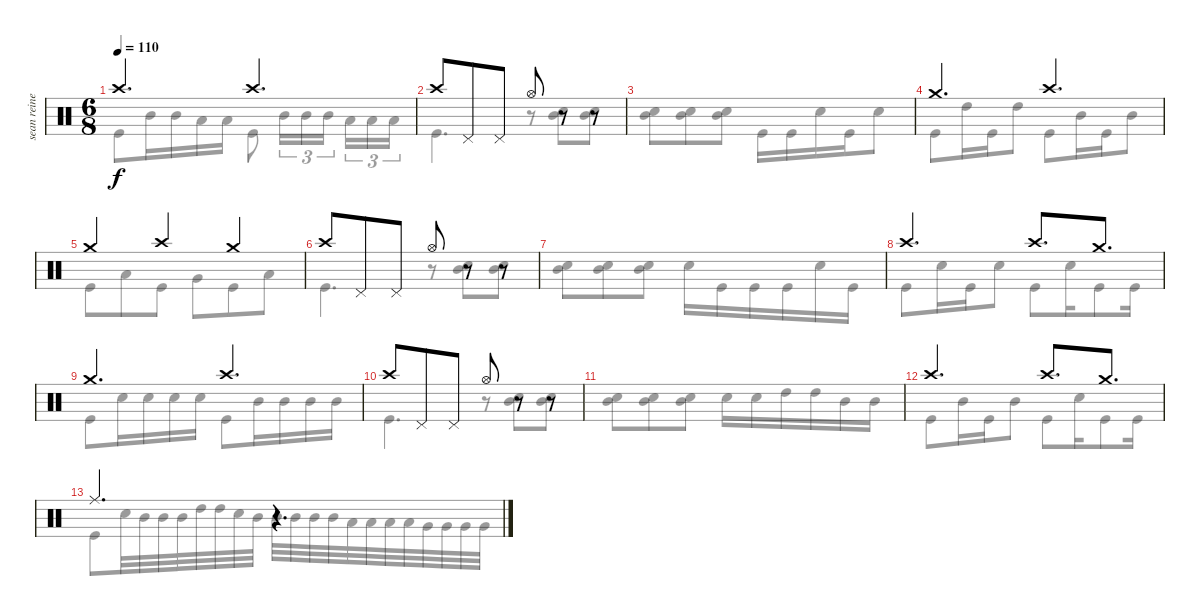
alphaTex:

\track ("sean reinert" "sean reine") {instrument percussion}
\staff {score}
\articulation defaults
\voice
\ts (6 8)
\tempo 110
\clef neutral
\ks c "Crash high (hit)".4{d dy f} "Crash high (hit)".4{d}
|
"Crash high (hit)".8 "Pedal Hi-Hat (hit)".8 "Pedal Hi-Hat (hit)".8 "Hi-Hat (open)".8 r.8 r.8 |
|
"Crash medium (hit)".4{d} "Crash high (hit)".4{d} |
"Crash medium (hit)".4 "Crash high (hit)".4 "Crash medium (hit)".4 |
"Crash high (hit)".8 "Pedal Hi-Hat (hit)".8 "Pedal Hi-Hat (hit)".8 "Hi-Hat (open)".8 r.8 r.8 |
|
"Crash high (hit)".4{d} "Crash high (hit)".8{d} "Crash medium (hit)".8{d} |
"Crash medium (hit)".4{d} "Crash high (hit)".4{d} |
"Crash high (hit)".8 "Pedal Hi-Hat (hit)".8 "Pedal Hi-Hat (hit)".8 "Hi-Hat (open)".8 r.8 r.8 |
|
"Crash high (hit)".4{d volume 0} "Crash high (hit)".8{d} "Crash medium (hit)".8{d} |
"Ride (middle)".4{d} r.4{d} |
\voice
\clef neutral
\ottava regular
\simile none
\ks c "Kick (hit)".8{dy f} "Mid Tom (hit)".16 "Mid Tom (hit)".16 "Low Tom (hit)".16 "Low Tom (hit)".16 "Kick (hit)".8 "Mid Tom (hit)".16{tu (3 2)} "Mid Tom (hit)".16{tu (3 2)} "Mid Tom (hit)".16{tu (3 2) beam splitsecondary} "Low Tom (hit)".16{tu (3 2)} "Low Tom (hit)".16{tu (3 2)} "Low Tom (hit)".16{tu (3 2)}
|
"Kick (hit)".4{d} r.8 ("Mid Tom (hit)" "Snare (hit) 2").8 ("Mid Tom (hit)" "Snare (hit) 2").8 |
("Mid Tom (hit)" "Snare (hit) 2").8 ("Mid Tom (hit)" "Snare (hit) 2").8 ("Mid Tom (hit)" "Snare (hit) 2").8 "Kick (hit)".16 "Kick (hit)".16 "Snare (hit) 2".16 "Kick (hit)".16 "Snare (hit) 2".8 |
"Kick (hit)".8 "High Tom (hit)".16 "Kick (hit)".16 "High Tom (hit)".8 "Kick (hit)".8 "Mid Tom (hit)".16 "Kick (hit)".16 "Mid Tom (hit)".8 |
"Kick (hit)".8 "Low Tom (hit)".8 "Kick (hit)".8 "Very Low Tom (hit)".8 "Kick (hit)".8 "Low Tom (hit)".8 |
"Kick (hit)".4{d} r.8 ("Mid Tom (hit)" "Snare (hit) 2").8 ("Mid Tom (hit)" "Snare (hit) 2").8 |
("Mid Tom (hit)" "Snare (hit) 2").8 ("Mid Tom (hit)" "Snare (hit) 2").8 ("Mid Tom (hit)" "Snare (hit) 2").8 "Snare (hit) 2".16 "Kick (hit)".16 "Kick (hit)".16 "Kick (hit)".16 "Snare (hit) 2".16 "Kick (hit)".16 |
"Kick (hit)".8 "Snare (hit) 2".16 "Kick (hit)".16 "Snare (hit) 2".8 "Kick (hit)".8 "Snare (hit) 2".16 "Kick (hit)".8 "Kick (hit)".16 |
"Kick (hit)".8 "Snare (hit) 2".16 "Snare (hit) 2".16 "Snare (hit) 2".16 "Snare (hit) 2".16 "Kick (hit)".8 "Mid Tom (hit)".16 "Mid Tom (hit)".16 "Mid Tom (hit)".16 "Mid Tom (hit)".16 |
"Kick (hit)".4{d} r.8 ("Mid Tom (hit)" "Snare (hit) 2").8 ("Mid Tom (hit)" "Snare (hit) 2").8 |
("Mid Tom (hit)" "Snare (hit) 2").8 ("Mid Tom (hit)" "Snare (hit) 2").8 ("Mid Tom (hit)" "Snare (hit) 2").8 "Snare (hit) 2".16 "Snare (hit) 2".16 "High Tom (hit)".16 "High Tom (hit)".16 "Mid Tom (hit)".16 "Mid Tom (hit)".16 |
"Kick (hit)".8 "Mid Tom (hit)".16 "Kick (hit)".16 "Mid Tom (hit)".8 "Kick (hit)".8 "Snare (hit) 2".16 "Kick (hit)".8 "Kick (hit)".16 |
"Kick (hit)".8 "Snare (hit) 2".32 "Mid Tom (hit)".32 "Mid Tom (hit)".32 "Mid Tom (hit)".32 "High Tom (hit)".32 "High Tom (hit)".32 "Snare (hit) 2".32 "Mid Tom (hit)".32 "Mid Tom (hit)".32 "Mid Tom (hit)".32 "Mid Tom (hit)".32 "Mid Tom (hit)".32 "Low Tom (hit)".32 "Low Tom (hit)".32 "Low Tom (hit)".32 "Low Tom (hit)".32 "Very Low Tom (hit)".32 "Very Low Tom (hit)".32 "Very Low Tom (hit)".32 "Very Low Tom (hit)".32 |
